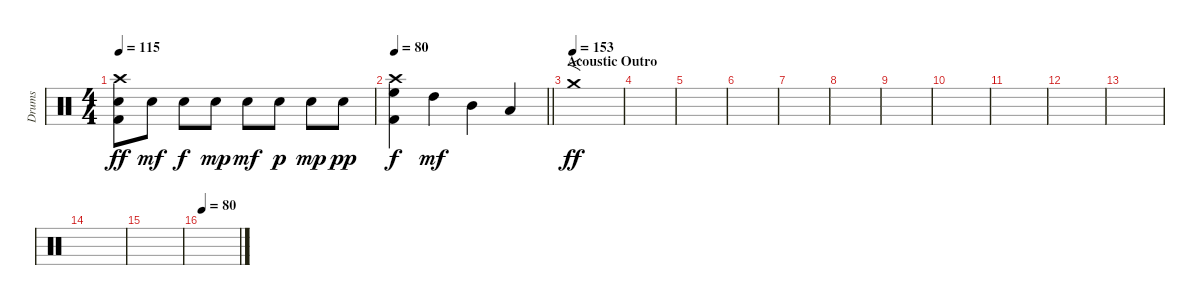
\track ("Drums" "Drums") {instrument percussion}
\staff {score}
\articulation defaults
\ts (4 4)
\tempo 115
\clef neutral
\ks c
("Crash high (hit)" "Electric Snare (hit)" "Kick (hit) 2").8{dy ff} "Electric Snare (hit)".8{dy mf} "Electric Snare (hit)".8{dy f} "Electric Snare (hit)".8{dy mp} "Electric Snare (hit)".8{dy mf} "Electric Snare (hit)".8{dy p} "Electric Snare (hit)".8{dy mp} "Electric Snare (hit)".8{dy pp} |
\tempo 80
\barLineRight lightlight
("Crash high (hit)" "High Floor Tom (hit)" "Kick (hit) 2").4{dy f} "High Tom (hit)".4{dy mf} "Mid Tom (hit)".4 "Low Tom (hit)".4 |
\section ("" "Acoustic Outro")
\tempo (153)
"Crash medium (hit)".1{f dy ff} |
|
|
|
|
|
|
|
|
|
|
|
|
\tempo 80
